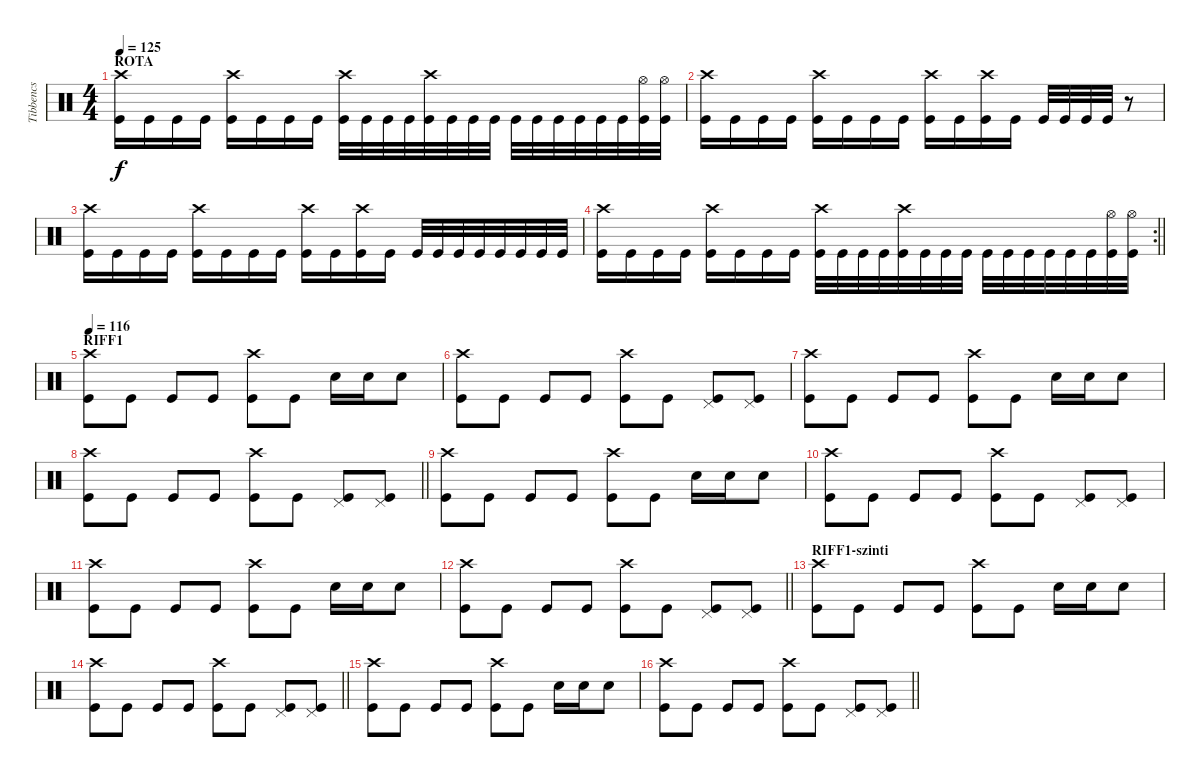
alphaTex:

\track ("Tibbencs" "Tibbencs") {instrument percussion}
\staff {score}
\articulation defaults
\ts (4 4)
\section ("" "ROTA")
\tempo 125
\clef neutral
\ks c
("Kick (hit)" "Crash high (hit)").16{dy f} "Kick (hit)".16 "Kick (hit)".16 "Kick (hit)".16 ("Kick (hit)" "Crash high (hit)").16 "Kick (hit)".16 "Kick (hit)".16 "Kick (hit)".16 ("Kick (hit)" "Crash high (hit)").32 "Kick (hit)".32 "Kick (hit)".32 "Kick (hit)".32 ("Kick (hit)" "Crash high (hit)").32 "Kick (hit)".32 "Kick (hit)".32 "Kick (hit)".32 "Kick (hit)".32 "Kick (hit)".32 "Kick (hit)".32 "Kick (hit)".32 "Kick (hit)".32 "Kick (hit)".32 ("Kick (hit)" "Hi-Hat (open)").32 ("Kick (hit)" "Hi-Hat (open)").32 |
("Kick (hit)" "Crash high (hit)").16 "Kick (hit)".16 "Kick (hit)".16 "Kick (hit)".16 ("Kick (hit)" "Crash high (hit)").16 "Kick (hit)".16 "Kick (hit)".16 "Kick (hit)".16 ("Kick (hit)" "Crash high (hit)").16 "Kick (hit)".16 ("Kick (hit)" "Crash high (hit)").16 "Kick (hit)".16 "Kick (hit)".32 "Kick (hit)".32 "Kick (hit)".32 "Kick (hit)".32 r.8 |
("Kick (hit)" "Crash high (hit)").16 "Kick (hit)".16 "Kick (hit)".16 "Kick (hit)".16 ("Kick (hit)" "Crash high (hit)").16 "Kick (hit)".16 "Kick (hit)".16 "Kick (hit)".16 ("Kick (hit)" "Crash high (hit)").16 "Kick (hit)".16 ("Kick (hit)" "Crash high (hit)").16 "Kick (hit)".16 "Kick (hit)".32 "Kick (hit)".32 "Kick (hit)".32 "Kick (hit)".32 "Kick (hit)".32 "Kick (hit)".32 "Kick (hit)".32 "Kick (hit)".32 |
\rc 2
\barLineRight lightlight
("Kick (hit)" "Crash high (hit)").16 "Kick (hit)".16 "Kick (hit)".16 "Kick (hit)".16 ("Kick (hit)" "Crash high (hit)").16 "Kick (hit)".16 "Kick (hit)".16 "Kick (hit)".16 ("Kick (hit)" "Crash high (hit)").32 "Kick (hit)".32 "Kick (hit)".32 "Kick (hit)".32 ("Kick (hit)" "Crash high (hit)").32 "Kick (hit)".32 "Kick (hit)".32 "Kick (hit)".32 "Kick (hit)".32 "Kick (hit)".32 "Kick (hit)".32 "Kick (hit)".32 "Kick (hit)".32 "Kick (hit)".32 ("Kick (hit)" "Hi-Hat (open)").32 ("Kick (hit)" "Hi-Hat (open)").32 |
\section ("" "RIFF1")
\tempo 116
("Kick (hit)" "Crash high (hit)").8 "Kick (hit)".8 "Kick (hit)".8 "Kick (hit)".8 ("Kick (hit)" "Crash high (hit)").8 "Kick (hit)".8 "Electric Snare (hit)".16 "Electric Snare (hit)".16 "Snare (hit) 2".8 |
("Kick (hit)" "Crash high (hit)").8 "Kick (hit)".8 "Kick (hit)".8 "Kick (hit)".8 ("Kick (hit)" "Crash high (hit)").8 "Kick (hit)".8 ("Kick (hit)" "Pedal Hi-Hat (hit)").8 ("Kick (hit)" "Pedal Hi-Hat (hit)").8 |
("Kick (hit)" "Crash high (hit)").8 "Kick (hit)".8 "Kick (hit)".8 "Kick (hit)".8 ("Kick (hit)" "Crash high (hit)").8 "Kick (hit)".8 "Electric Snare (hit)".16 "Electric Snare (hit)".16 "Snare (hit) 2".8 |
\barLineRight lightlight
("Kick (hit)" "Crash high (hit)").8 "Kick (hit)".8 "Kick (hit)".8 "Kick (hit)".8 ("Kick (hit)" "Crash high (hit)").8 "Kick (hit)".8 ("Kick (hit)" "Pedal Hi-Hat (hit)").8 ("Kick (hit)" "Pedal Hi-Hat (hit)").8 |
("Kick (hit)" "Crash high (hit)").8 "Kick (hit)".8 "Kick (hit)".8 "Kick (hit)".8 ("Kick (hit)" "Crash high (hit)").8 "Kick (hit)".8 "Electric Snare (hit)".16 "Electric Snare (hit)".16 "Snare (hit) 2".8 |
("Kick (hit)" "Crash high (hit)").8 "Kick (hit)".8 "Kick (hit)".8 "Kick (hit)".8 ("Kick (hit)" "Crash high (hit)").8 "Kick (hit)".8 ("Kick (hit)" "Pedal Hi-Hat (hit)").8 ("Kick (hit)" "Pedal Hi-Hat (hit)").8 |
("Kick (hit)" "Crash high (hit)").8 "Kick (hit)".8 "Kick (hit)".8 "Kick (hit)".8 ("Kick (hit)" "Crash high (hit)").8 "Kick (hit)".8 "Electric Snare (hit)".16 "Electric Snare (hit)".16 "Snare (hit) 2".8 |
\barLineRight lightlight
("Kick (hit)" "Crash high (hit)").8 "Kick (hit)".8 "Kick (hit)".8 "Kick (hit)".8 ("Kick (hit)" "Crash high (hit)").8 "Kick (hit)".8 ("Kick (hit)" "Pedal Hi-Hat (hit)").8 ("Kick (hit)" "Pedal Hi-Hat (hit)").8 |
\section ("" "RIFF1-szinti")
("Kick (hit)" "Crash high (hit)").8 "Kick (hit)".8 "Kick (hit)".8 "Kick (hit)".8 ("Kick (hit)" "Crash high (hit)").8 "Kick (hit)".8 "Electric Snare (hit)".16 "Electric Snare (hit)".16 "Snare (hit) 2".8 |
\barLineRight lightlight
("Kick (hit)" "Crash high (hit)").8 "Kick (hit)".8 "Kick (hit)".8 "Kick (hit)".8 ("Kick (hit)" "Crash high (hit)").8 "Kick (hit)".8 ("Kick (hit)" "Pedal Hi-Hat (hit)").8 ("Kick (hit)" "Pedal Hi-Hat (hit)").8 |
("Kick (hit)" "Crash high (hit)").8 "Kick (hit)".8 "Kick (hit)".8 "Kick (hit)".8 ("Kick (hit)" "Crash high (hit)").8 "Kick (hit)".8 "Electric Snare (hit)".16 "Electric Snare (hit)".16 "Snare (hit) 2".8 |
\barLineRight lightlight
("Kick (hit)" "Crash high (hit)").8 "Kick (hit)".8 "Kick (hit)".8 "Kick (hit)".8 ("Kick (hit)" "Crash high (hit)").8 "Kick (hit)".8 ("Kick (hit)" "Pedal Hi-Hat (hit)").8 ("Kick (hit)" "Pedal Hi-Hat (hit)").8
